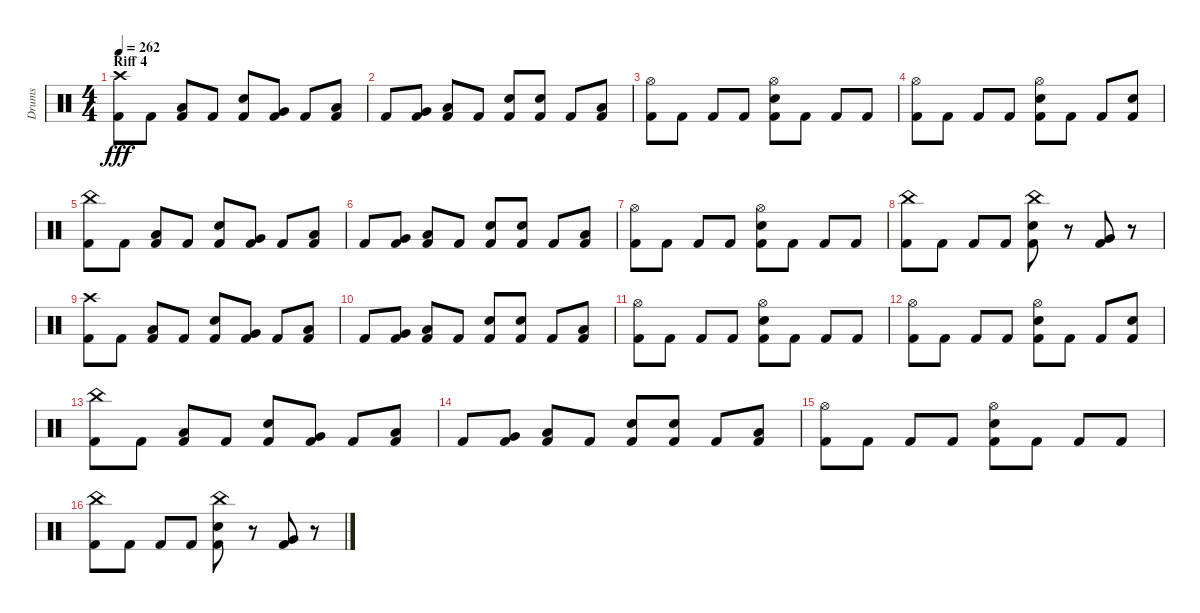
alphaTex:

\track ("Drums" "Drums") {instrument percussion}
\staff {score}
\articulation defaults
\ts (4 4)
\section ("" "Riff 4")
\tempo 262
\clef neutral
\ks c
("Crash high (hit)" "Kick (hit) 2").8{dy fff} "Kick (hit) 2".8 ("Kick (hit) 2" "Low Tom (hit)").8 "Kick (hit) 2".8 ("Kick (hit) 2" "Snare (hit) 2").8 ("Kick (hit) 2" "Very Low Tom (hit)").8 "Kick (hit) 2".8 ("Kick (hit) 2" "Low Tom (hit)").8 |
"Kick (hit) 2".8 ("Kick (hit) 2" "Very Low Tom (hit)").8 ("Kick (hit) 2" "Low Tom (hit)").8 "Kick (hit) 2".8 ("Kick (hit) 2" "Snare (hit) 2").8 ("Kick (hit) 2" "Snare (hit) 2").8 "Kick (hit) 2".8 ("Kick (hit) 2" "Low Tom (hit)").8 |
("Hi-Hat (open)" "Kick (hit) 2").8 "Kick (hit) 2".8 "Kick (hit) 2".8 "Kick (hit) 2".8 ("Hi-Hat (open)" "Kick (hit) 2" "Snare (hit) 2").8 "Kick (hit) 2".8 "Kick (hit) 2".8 "Kick (hit) 2".8 |
("Hi-Hat (open)" "Kick (hit) 2").8 "Kick (hit) 2".8 "Kick (hit) 2".8 "Kick (hit) 2".8 ("Hi-Hat (open)" "Kick (hit) 2" "Snare (hit) 2").8 "Kick (hit) 2".8 "Kick (hit) 2".8 ("Kick (hit) 2" "Snare (hit) 2").8 |
("China (hit)" "Kick (hit) 2").8 "Kick (hit) 2".8 ("Kick (hit) 2" "Low Tom (hit)").8 "Kick (hit) 2".8 ("Kick (hit) 2" "Snare (hit) 2").8 ("Kick (hit) 2" "Very Low Tom (hit)").8 "Kick (hit) 2".8 ("Kick (hit) 2" "Low Tom (hit)").8 |
"Kick (hit) 2".8 ("Kick (hit) 2" "Very Low Tom (hit)").8 ("Kick (hit) 2" "Low Tom (hit)").8 "Kick (hit) 2".8 ("Kick (hit) 2" "Snare (hit) 2").8 ("Kick (hit) 2" "Snare (hit) 2").8 "Kick (hit) 2".8 ("Kick (hit) 2" "Low Tom (hit)").8 |
("Hi-Hat (open)" "Kick (hit) 2").8 "Kick (hit) 2".8 "Kick (hit) 2".8 "Kick (hit) 2".8 ("Hi-Hat (open)" "Kick (hit) 2" "Snare (hit) 2").8 "Kick (hit) 2".8 "Kick (hit) 2".8 "Kick (hit) 2".8 |
("China (hit)" "Kick (hit) 2").8 "Kick (hit) 2".8 "Kick (hit) 2".8 "Kick (hit) 2".8 ("China (hit)" "Kick (hit) 2" "Snare (hit) 2").8 r.8 ("Kick (hit) 2" "Very Low Tom (hit)").8 r.8 |
("Crash high (hit)" "Kick (hit) 2").8 "Kick (hit) 2".8 ("Kick (hit) 2" "Low Tom (hit)").8 "Kick (hit) 2".8 ("Kick (hit) 2" "Snare (hit) 2").8 ("Kick (hit) 2" "Very Low Tom (hit)").8 "Kick (hit) 2".8 ("Kick (hit) 2" "Low Tom (hit)").8 |
"Kick (hit) 2".8 ("Kick (hit) 2" "Very Low Tom (hit)").8 ("Kick (hit) 2" "Low Tom (hit)").8 "Kick (hit) 2".8 ("Kick (hit) 2" "Snare (hit) 2").8 ("Kick (hit) 2" "Snare (hit) 2").8 "Kick (hit) 2".8 ("Kick (hit) 2" "Low Tom (hit)").8 |
("Hi-Hat (open)" "Kick (hit) 2").8 "Kick (hit) 2".8 "Kick (hit) 2".8 "Kick (hit) 2".8 ("Hi-Hat (open)" "Kick (hit) 2" "Snare (hit) 2").8 "Kick (hit) 2".8 "Kick (hit) 2".8 "Kick (hit) 2".8 |
("Hi-Hat (open)" "Kick (hit) 2").8 "Kick (hit) 2".8 "Kick (hit) 2".8 "Kick (hit) 2".8 ("Hi-Hat (open)" "Kick (hit) 2" "Snare (hit) 2").8 "Kick (hit) 2".8 "Kick (hit) 2".8 ("Kick (hit) 2" "Snare (hit) 2").8 |
("China (hit)" "Kick (hit) 2").8 "Kick (hit) 2".8 ("Kick (hit) 2" "Low Tom (hit)").8 "Kick (hit) 2".8 ("Kick (hit) 2" "Snare (hit) 2").8 ("Kick (hit) 2" "Very Low Tom (hit)").8 "Kick (hit) 2".8 ("Kick (hit) 2" "Low Tom (hit)").8 |
"Kick (hit) 2".8 ("Kick (hit) 2" "Very Low Tom (hit)").8 ("Kick (hit) 2" "Low Tom (hit)").8 "Kick (hit) 2".8 ("Kick (hit) 2" "Snare (hit) 2").8 ("Kick (hit) 2" "Snare (hit) 2").8 "Kick (hit) 2".8 ("Kick (hit) 2" "Low Tom (hit)").8 |
("Hi-Hat (open)" "Kick (hit) 2").8 "Kick (hit) 2".8 "Kick (hit) 2".8 "Kick (hit) 2".8 ("Hi-Hat (open)" "Kick (hit) 2" "Snare (hit) 2").8 "Kick (hit) 2".8 "Kick (hit) 2".8 "Kick (hit) 2".8 |
("China (hit)" "Kick (hit) 2").8 "Kick (hit) 2".8 "Kick (hit) 2".8 "Kick (hit) 2".8 ("China (hit)" "Kick (hit) 2" "Snare (hit) 2").8 r.8 ("Kick (hit) 2" "Very Low Tom (hit)").8 r.8
